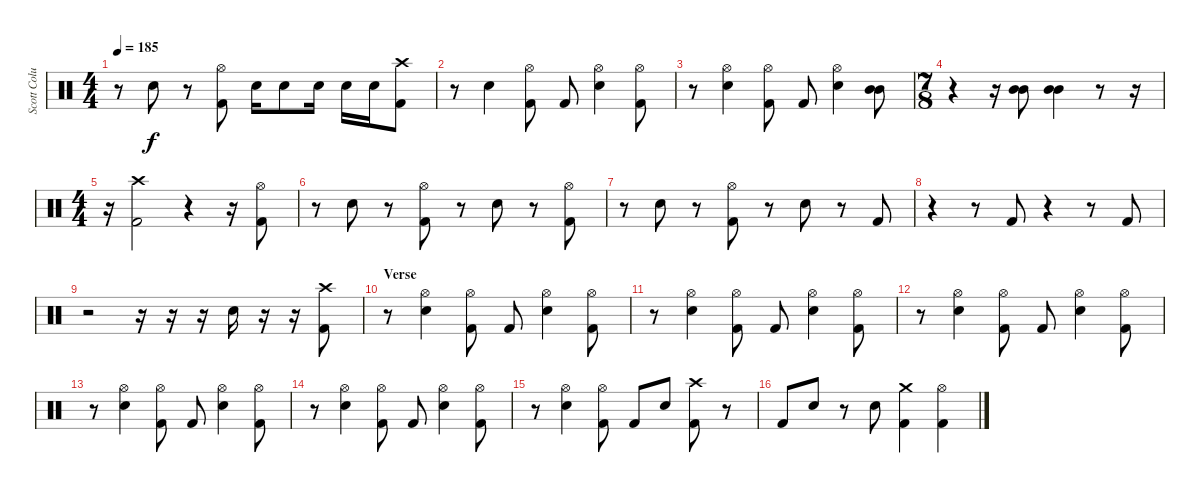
\track ("Scott Columbus" "Scott Colu") {instrument percussion}
\staff {score}
\articulation defaults
\ts (4 4)
\tempo 185
\clef neutral
\ks c
r.8{dy f} "Snare (hit) 2".8 r.8 ("Hi-Hat (open)" "Kick (hit) 2").8 "Snare (hit) 2".16 "Snare (hit) 2".8 "Snare (hit) 2".16 "Snare (hit) 2".16 "Snare (hit) 2".16 ("Crash high (hit)" "Kick (hit) 2").8 |
r.8 "Snare (hit) 2".4 ("Hi-Hat (open)" "Kick (hit) 2").8 "Kick (hit) 2".8 ("Hi-Hat (open)" "Snare (hit) 2").4 ("Hi-Hat (open)" "Kick (hit) 2").8 |
r.8 ("Hi-Hat (open)" "Snare (hit) 2").4 ("Hi-Hat (open)" "Kick (hit) 2").8 "Kick (hit) 2".8 ("Hi-Hat (open)" "Snare (hit) 2").4 ("Mid Tom (hit)" "Mid Tom (hit)").8 |
\ts (7 8)
r.4 r.16 ("Mid Tom (hit)" "Mid Tom (hit)").8 ("Mid Tom (hit)" "Mid Tom (hit)").4 r.8 r.16 |
\ts (4 4)
r.16 ("Crash high (hit)" "Kick (hit) 2").2 r.4 r.16 ("Hi-Hat (open)" "Kick (hit) 2").8 |
r.8 "Snare (hit) 2".8 r.8 ("Hi-Hat (open)" "Kick (hit) 2").8 r.8 "Snare (hit) 2".8 r.8 ("Hi-Hat (open)" "Kick (hit) 2").8 |
r.8 "Snare (hit) 2".8 r.8 ("Hi-Hat (open)" "Kick (hit) 2").8 r.8 "Snare (hit) 2".8 r.8 "Kick (hit) 2".8 |
r.4 r.8 "Kick (hit) 2".8 r.4 r.8 "Kick (hit) 2".8 |
r.2 r.16 r.16 r.16 "Snare (hit) 2".16 r.16 r.16 ("Crash high (hit)" "Kick (hit) 2").8 |
\section ("" "Verse")
r.8 ("Hi-Hat (open)" "Snare (hit) 2").4 ("Hi-Hat (open)" "Kick (hit) 2").8 "Kick (hit) 2".8 ("Hi-Hat (open)" "Snare (hit) 2").4 ("Hi-Hat (open)" "Kick (hit) 2").8 |
r.8 ("Hi-Hat (open)" "Snare (hit) 2").4 ("Hi-Hat (open)" "Kick (hit) 2").8 "Kick (hit) 2".8 ("Hi-Hat (open)" "Snare (hit) 2").4 ("Hi-Hat (open)" "Kick (hit) 2").8 |
r.8 ("Hi-Hat (open)" "Snare (hit) 2").4 ("Hi-Hat (open)" "Kick (hit) 2").8 "Kick (hit) 2".8 ("Hi-Hat (open)" "Snare (hit) 2").4 ("Hi-Hat (open)" "Kick (hit) 2").8 |
r.8 ("Hi-Hat (open)" "Snare (hit) 2").4 ("Hi-Hat (open)" "Kick (hit) 2").8 "Kick (hit) 2".8 ("Hi-Hat (open)" "Snare (hit) 2").4 ("Hi-Hat (open)" "Kick (hit) 2").8 |
r.8 ("Hi-Hat (open)" "Snare (hit) 2").4 ("Hi-Hat (open)" "Kick (hit) 2").8 "Kick (hit) 2".8 ("Hi-Hat (open)" "Snare (hit) 2").4 ("Hi-Hat (open)" "Kick (hit) 2").8 |
r.8 ("Hi-Hat (open)" "Snare (hit) 2").4 ("Hi-Hat (open)" "Kick (hit) 2").8 "Kick (hit) 2".8 "Snare (hit) 2".8 ("Crash high (hit)" "Kick (hit) 2").8 r.8 |
"Kick (hit) 2".8 "Snare (hit) 2".8 r.8 "Snare (hit) 2".8 ("Crash medium (hit)" "Kick (hit) 2").4 ("Hi-Hat (open)" "Kick (hit) 2").4
